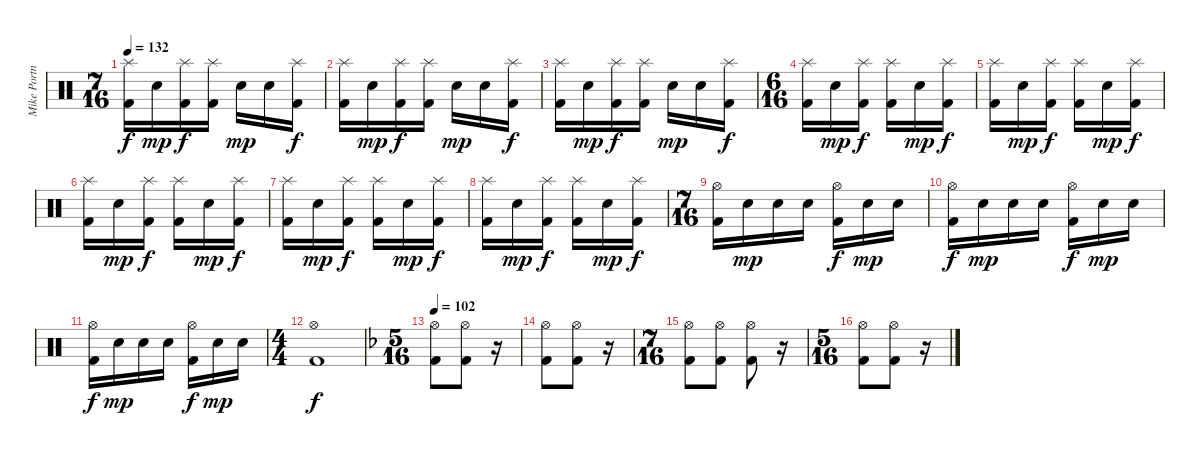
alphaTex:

\track ("Mike Portnoy" "Mike Portn") {instrument percussion}
\staff {score}
\articulation defaults
\ts (7 16)
\tempo 132
\clef neutral
\ks c
("Splash (hit)" "Kick (hit) 2").16{dy f} "Snare (hit) 2".16{dy mp} ("Splash (hit)" "Kick (hit) 2").16{dy f} ("Splash (hit)" "Kick (hit) 2").16 "Snare (hit) 2".16{dy mp} "Snare (hit) 2".16 ("Splash (hit)" "Kick (hit) 2").16{dy f} |
("Splash (hit)" "Kick (hit) 2").16 "Snare (hit) 2".16{dy mp} ("Splash (hit)" "Kick (hit) 2").16{dy f} ("Splash (hit)" "Kick (hit) 2").16 "Snare (hit) 2".16{dy mp} "Snare (hit) 2".16 ("Splash (hit)" "Kick (hit) 2").16{dy f} |
("Splash (hit)" "Kick (hit) 2").16 "Snare (hit) 2".16{dy mp} ("Splash (hit)" "Kick (hit) 2").16{dy f} ("Splash (hit)" "Kick (hit) 2").16 "Snare (hit) 2".16{dy mp} "Snare (hit) 2".16 ("Splash (hit)" "Kick (hit) 2").16{dy f} |
\ts (6 16)
("Splash (hit)" "Kick (hit) 2").16 "Snare (hit) 2".16{dy mp} ("Splash (hit)" "Kick (hit) 2").16{dy f} ("Splash (hit)" "Kick (hit) 2").16 "Snare (hit) 2".16{dy mp} ("Splash (hit)" "Kick (hit) 2").16{dy f} |
("Splash (hit)" "Kick (hit) 2").16 "Snare (hit) 2".16{dy mp} ("Splash (hit)" "Kick (hit) 2").16{dy f} ("Splash (hit)" "Kick (hit) 2").16 "Snare (hit) 2".16{dy mp} ("Splash (hit)" "Kick (hit) 2").16{dy f} |
("Splash (hit)" "Kick (hit) 2").16 "Snare (hit) 2".16{dy mp} ("Splash (hit)" "Kick (hit) 2").16{dy f} ("Splash (hit)" "Kick (hit) 2").16 "Snare (hit) 2".16{dy mp} ("Splash (hit)" "Kick (hit) 2").16{dy f} |
("Splash (hit)" "Kick (hit) 2").16 "Snare (hit) 2".16{dy mp} ("Splash (hit)" "Kick (hit) 2").16{dy f} ("Splash (hit)" "Kick (hit) 2").16 "Snare (hit) 2".16{dy mp} ("Splash (hit)" "Kick (hit) 2").16{dy f} |
("Splash (hit)" "Kick (hit) 2").16 "Snare (hit) 2".16{dy mp} ("Splash (hit)" "Kick (hit) 2").16{dy f} ("Splash (hit)" "Kick (hit) 2").16 "Snare (hit) 2".16{dy mp} ("Splash (hit)" "Kick (hit) 2").16{dy f} |
\ts (7 16)
("Hi-Hat (open)" "Kick (hit) 2").16 "Snare (hit) 2".16{dy mp} "Snare (hit) 2".16 "Snare (hit) 2".16 ("Hi-Hat (open)" "Kick (hit) 2").16{dy f} "Snare (hit) 2".16{dy mp} "Snare (hit) 2".16 |
("Hi-Hat (open)" "Kick (hit) 2").16{dy f} "Snare (hit) 2".16{dy mp} "Snare (hit) 2".16 "Snare (hit) 2".16 ("Hi-Hat (open)" "Kick (hit) 2").16{dy f} "Snare (hit) 2".16{dy mp} "Snare (hit) 2".16 |
("Hi-Hat (open)" "Kick (hit) 2").16{dy f} "Snare (hit) 2".16{dy mp} "Snare (hit) 2".16 "Snare (hit) 2".16 ("Hi-Hat (open)" "Kick (hit) 2").16{dy f} "Snare (hit) 2".16{dy mp} "Snare (hit) 2".16 |
\ts (4 4)
("Hi-Hat (open)" "Kick (hit) 2").1{dy f} |
\ts (5 16)
\tempo 102
\ks f
("Hi-Hat (open)" "Kick (hit) 2").8 ("Hi-Hat (open)" "Kick (hit) 2").8 r.16 |
("Hi-Hat (open)" "Kick (hit) 2").8 ("Hi-Hat (open)" "Kick (hit) 2").8 r.16 |
\ts (7 16)
("Hi-Hat (open)" "Kick (hit) 2").8 ("Hi-Hat (open)" "Kick (hit) 2").8 ("Hi-Hat (open)" "Kick (hit) 2").8 r.16 |
\ts (5 16)
("Hi-Hat (open)" "Kick (hit) 2").8 ("Hi-Hat (open)" "Kick (hit) 2").8 r.16
